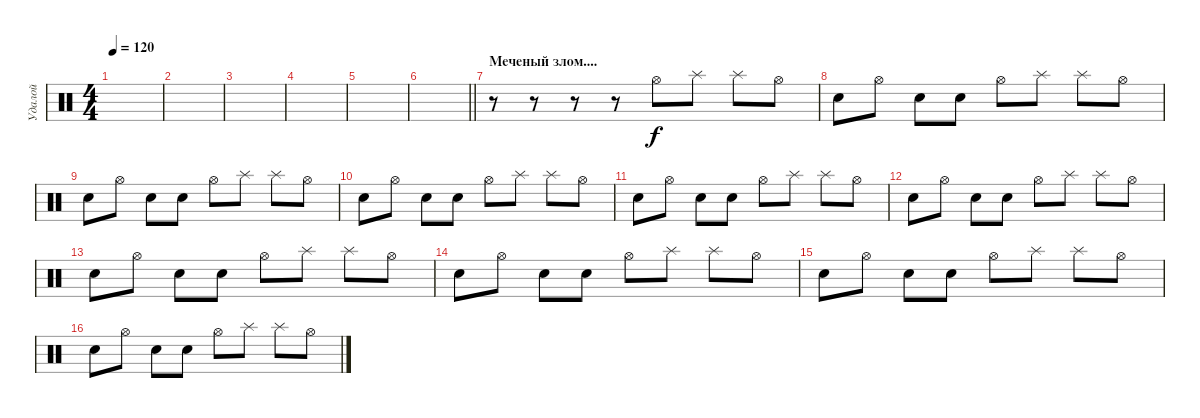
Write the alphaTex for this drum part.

\track ("Удалой" "Удалой") {instrument percussion}
\staff {score}
\articulation defaults
\ts (4 4)
\tempo 120
\clef neutral
\ks c
|
|
|
|
|
\barLineRight lightlight
|
\section ("" "Меченый злом....")
r.8 r.8 r.8 r.8 "Hi-Hat (open)".8 "Splash (hit)".8 "Splash (hit)".8 "Hi-Hat (open)".8 |
"Snare (hit) 2".8 "Hi-Hat (open)".8 "Snare (hit) 2".8 "Snare (hit) 2".8 "Hi-Hat (open)".8 "Splash (hit)".8 "Splash (hit)".8 "Hi-Hat (open)".8 |
"Snare (hit) 2".8 "Hi-Hat (open)".8 "Snare (hit) 2".8 "Snare (hit) 2".8 "Hi-Hat (open)".8 "Splash (hit)".8 "Splash (hit)".8 "Hi-Hat (open)".8 |
"Snare (hit) 2".8 "Hi-Hat (open)".8 "Snare (hit) 2".8 "Snare (hit) 2".8 "Hi-Hat (open)".8 "Splash (hit)".8 "Splash (hit)".8 "Hi-Hat (open)".8 |
"Snare (hit) 2".8 "Hi-Hat (open)".8 "Snare (hit) 2".8 "Snare (hit) 2".8 "Hi-Hat (open)".8 "Splash (hit)".8 "Splash (hit)".8 "Hi-Hat (open)".8 |
"Snare (hit) 2".8 "Hi-Hat (open)".8 "Snare (hit) 2".8 "Snare (hit) 2".8 "Hi-Hat (open)".8 "Splash (hit)".8 "Splash (hit)".8 "Hi-Hat (open)".8 |
"Snare (hit) 2".8 "Hi-Hat (open)".8 "Snare (hit) 2".8 "Snare (hit) 2".8 "Hi-Hat (open)".8 "Splash (hit)".8 "Splash (hit)".8 "Hi-Hat (open)".8 |
"Snare (hit) 2".8 "Hi-Hat (open)".8 "Snare (hit) 2".8 "Snare (hit) 2".8 "Hi-Hat (open)".8 "Splash (hit)".8 "Splash (hit)".8 "Hi-Hat (open)".8 |
"Snare (hit) 2".8 "Hi-Hat (open)".8 "Snare (hit) 2".8 "Snare (hit) 2".8 "Hi-Hat (open)".8 "Splash (hit)".8 "Splash (hit)".8 "Hi-Hat (open)".8 |
"Snare (hit) 2".8 "Hi-Hat (open)".8 "Snare (hit) 2".8 "Snare (hit) 2".8 "Hi-Hat (open)".8 "Splash (hit)".8 "Splash (hit)".8 "Hi-Hat (open)".8
